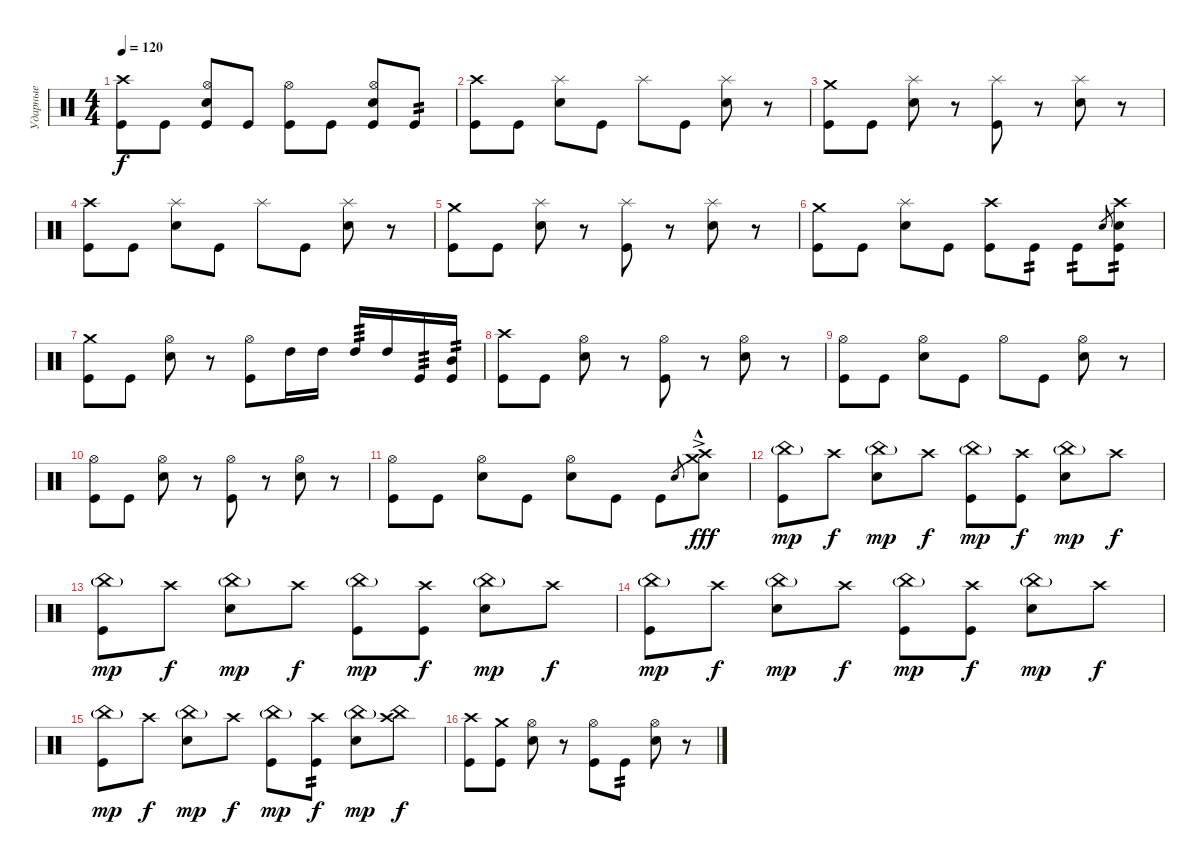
\track ("Ударные" "Ударные") {instrument percussion}
\staff {score}
\articulation defaults
\ts (4 4)
\tempo 120
\clef neutral
\ks c
("Crash high (hit)" "Kick (hit)").8{dy f} "Kick (hit)".8 ("Hi-Hat (open)" "Snare (hit) 2" "Kick (hit)").8 "Kick (hit)".8 ("Hi-Hat (open)" "Kick (hit)").8 "Kick (hit)".8 ("Hi-Hat (open)" "Snare (hit) 2" "Kick (hit)").8 "Kick (hit)".8{tp 2} |
("Crash high (hit)" "Kick (hit)").8 "Kick (hit)".8 ("Splash (hit)" "Snare (hit) 2").8 "Kick (hit)".8 "Splash (hit)".8 "Kick (hit)".8 ("Splash (hit)" "Snare (hit) 2").8 r.8 |
("Crash medium (hit)" "Kick (hit)").8 "Kick (hit)".8 ("Splash (hit)" "Snare (hit) 2").8 r.8 ("Splash (hit)" "Kick (hit)").8 r.8 ("Splash (hit)" "Snare (hit) 2").8 r.8 |
("Crash high (hit)" "Kick (hit)").8 "Kick (hit)".8 ("Splash (hit)" "Snare (hit) 2").8 "Kick (hit)".8 "Splash (hit)".8 "Kick (hit)".8 ("Splash (hit)" "Snare (hit) 2").8 r.8 |
("Crash medium (hit)" "Kick (hit)").8 "Kick (hit)".8 ("Splash (hit)" "Snare (hit) 2").8 r.8 ("Splash (hit)" "Kick (hit)").8 r.8 ("Splash (hit)" "Snare (hit) 2").8 r.8 |
("Crash medium (hit)" "Kick (hit)").8 "Kick (hit)".8 ("Splash (hit)" "Snare (hit) 2").8 "Kick (hit)".8 ("Crash high (hit)" "Kick (hit)").8 "Kick (hit)".8{tp 2} "Kick (hit)".8{tp 2} "Snare (hit) 2".8{gr} ("Crash high (hit)" "Snare (hit) 2" "Kick (hit)").8{tp 2} |
("Crash medium (hit)" "Kick (hit)").8 "Kick (hit)".8 ("Hi-Hat (open)" "Snare (hit) 2").8 r.8 ("Hi-Hat (open)" "Kick (hit)").8 "High Tom (hit)".16 "High Tom (hit)".16 "High Tom (hit)".16{tp 3} "High Tom (hit)".16 "Kick (hit)".16{tp 3} ("Mid Tom (hit)" "Kick (hit)").16{tp 2} |
("Crash high (hit)" "Kick (hit)").8 "Kick (hit)".8 ("Hi-Hat (open)" "Snare (hit) 2").8 r.8 ("Hi-Hat (open)" "Kick (hit)").8 r.8 ("Hi-Hat (open)" "Snare (hit) 2").8 r.8 |
("Hi-Hat (open)" "Kick (hit)").8 "Kick (hit)".8 ("Hi-Hat (open)" "Snare (hit) 2").8 "Kick (hit)".8 "Hi-Hat (open)".8 "Kick (hit)".8 ("Hi-Hat (open)" "Snare (hit) 2").8 r.8 |
("Hi-Hat (open)" "Kick (hit)").8 "Kick (hit)".8 ("Hi-Hat (open)" "Snare (hit) 2").8 r.8 ("Hi-Hat (open)" "Kick (hit)").8 r.8 ("Hi-Hat (open)" "Snare (hit) 2").8 r.8 |
("Hi-Hat (open)" "Kick (hit)").8 "Kick (hit)".8 ("Hi-Hat (open)" "Snare (hit) 2").8 "Kick (hit)".8 ("Hi-Hat (open)" "Snare (hit) 2").8 "Kick (hit)".8 "Kick (hit)".8 "Snare (hit) 2".8{gr} ("Crash high (hit)"{ac} "Crash medium (hit)"{hac} "Snare (hit) 2").8{dy fff} |
("China (hit)"{g} "Kick (hit)").8{dy mp} "Crash high (hit)".8{dy f} ("China (hit)"{g} "Snare (hit) 2").8{dy mp} "Crash high (hit)".8{dy f} ("China (hit)"{g} "Kick (hit)").8{dy mp} ("Crash high (hit)" "Kick (hit)").8{dy f} ("China (hit)"{g} "Snare (hit) 2").8{dy mp} "Crash high (hit)".8{dy f} |
("China (hit)"{g} "Kick (hit)").8{dy mp} "Crash high (hit)".8{dy f} ("China (hit)"{g} "Snare (hit) 2").8{dy mp} "Crash high (hit)".8{dy f} ("China (hit)"{g} "Kick (hit)").8{dy mp} ("Crash high (hit)" "Kick (hit)").8{dy f} ("China (hit)"{g} "Snare (hit) 2").8{dy mp} "Crash high (hit)".8{dy f} |
("China (hit)"{g} "Kick (hit)").8{dy mp} "Crash high (hit)".8{dy f} ("China (hit)"{g} "Snare (hit) 2").8{dy mp} "Crash high (hit)".8{dy f} ("China (hit)"{g} "Kick (hit)").8{dy mp} ("Crash high (hit)" "Kick (hit)").8{dy f} ("China (hit)"{g} "Snare (hit) 2").8{dy mp} "Crash high (hit)".8{dy f} |
("China (hit)"{g} "Kick (hit)").8{dy mp} "Crash high (hit)".8{dy f} ("China (hit)"{g} "Snare (hit) 2").8{dy mp} "Crash high (hit)".8{dy f} ("China (hit)"{g} "Kick (hit)").8{dy mp} ("Crash high (hit)" "Kick (hit)").8{tp 2 dy f} ("China (hit)"{g} "Snare (hit) 2").8{dy mp} ("Crash high (hit)" "China (hit)").8{dy f} |
("Crash high (hit)" "Kick (hit)").8 ("Crash medium (hit)" "Kick (hit)").8 ("Hi-Hat (open)" "Snare (hit) 2").8 r.8 ("Hi-Hat (open)" "Kick (hit)").8 "Kick (hit)".8{tp 2} ("Hi-Hat (open)" "Snare (hit) 2").8 r.8
